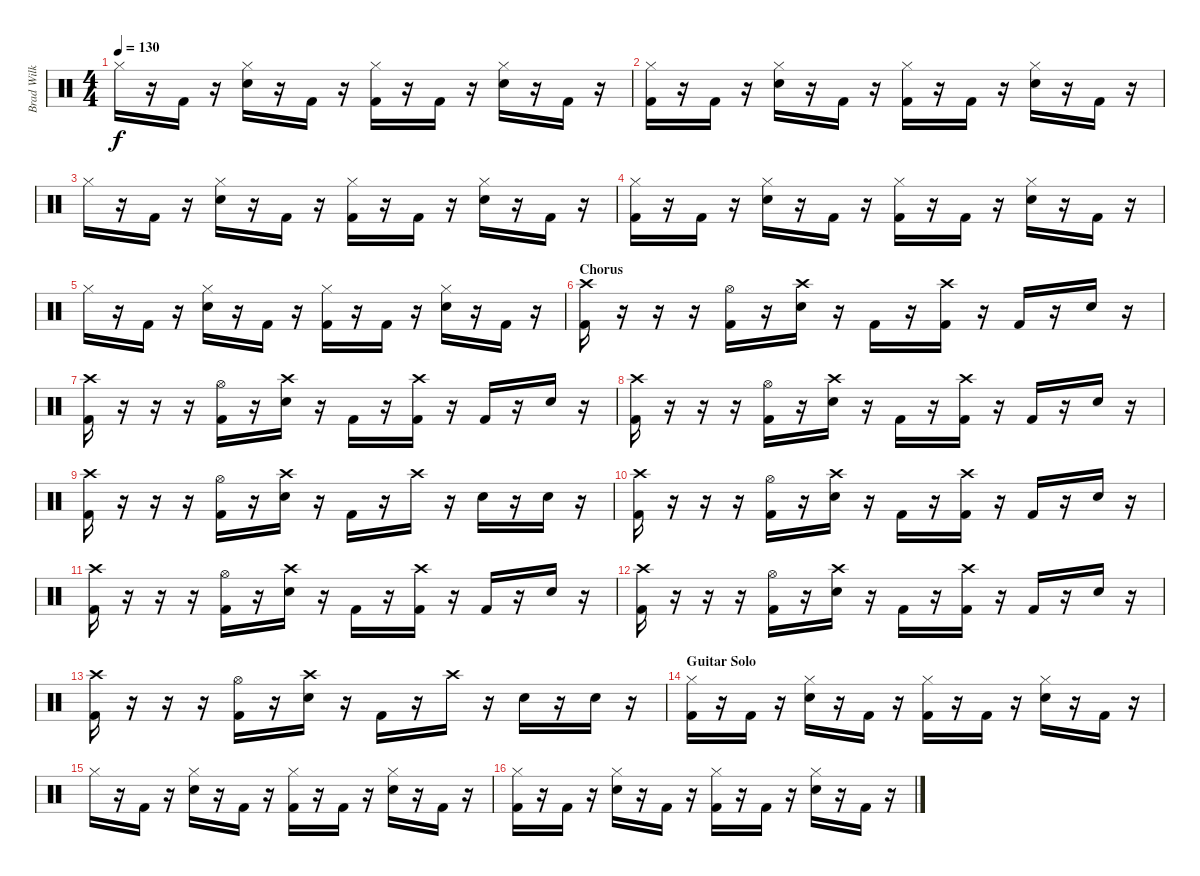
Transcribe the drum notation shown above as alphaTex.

\track ("Brad Wilk - Drums" "Brad Wilk ") {instrument percussion}
\staff {score}
\articulation defaults
\ts (4 4)
\tempo 130
\clef neutral
\ks c "Hi-Hat (closed)".16{dy f}
r.16 "Kick (hit) 2".16 r.16 ("Hi-Hat (closed)" "Electric Snare (hit)").16 r.16 "Kick (hit) 2".16 r.16 ("Hi-Hat (closed)" "Kick (hit) 2").16 r.16 "Kick (hit) 2".16 r.16 ("Hi-Hat (closed)" "Electric Snare (hit)").16 r.16 "Kick (hit) 2".16 r.16 |
("Hi-Hat (closed)" "Kick (hit) 2").16 r.16 "Kick (hit) 2".16 r.16 ("Hi-Hat (closed)" "Electric Snare (hit)").16 r.16 "Kick (hit) 2".16 r.16 ("Hi-Hat (closed)" "Kick (hit) 2").16 r.16 "Kick (hit) 2".16 r.16 ("Hi-Hat (closed)" "Electric Snare (hit)").16 r.16 "Kick (hit) 2".16 r.16 |
"Hi-Hat (closed)".16 r.16 "Kick (hit) 2".16 r.16 ("Hi-Hat (closed)" "Electric Snare (hit)").16 r.16 "Kick (hit) 2".16 r.16 ("Hi-Hat (closed)" "Kick (hit) 2").16 r.16 "Kick (hit) 2".16 r.16 ("Hi-Hat (closed)" "Electric Snare (hit)").16 r.16 "Kick (hit) 2".16 r.16 |
("Hi-Hat (closed)" "Kick (hit) 2").16 r.16 "Kick (hit) 2".16 r.16 ("Hi-Hat (closed)" "Electric Snare (hit)").16 r.16 "Kick (hit) 2".16 r.16 ("Hi-Hat (closed)" "Kick (hit) 2").16 r.16 "Kick (hit) 2".16 r.16 ("Hi-Hat (closed)" "Electric Snare (hit)").16 r.16 "Kick (hit) 2".16 r.16 |
"Hi-Hat (closed)".16 r.16 "Kick (hit) 2".16 r.16 ("Hi-Hat (closed)" "Electric Snare (hit)").16 r.16 "Kick (hit) 2".16 r.16 ("Hi-Hat (closed)" "Kick (hit) 2").16 r.16 "Kick (hit) 2".16 r.16 ("Hi-Hat (closed)" "Electric Snare (hit)").16 r.16 "Kick (hit) 2".16 r.16 |
\section ("" "Chorus")
("Crash high (hit)" "Kick (hit) 2").16 r.16 r.16 r.16 ("Hi-Hat (open)" "Kick (hit) 2").16 r.16 ("Crash high (hit)" "Electric Snare (hit)").16 r.16 "Kick (hit) 2".16 r.16 ("Crash high (hit)" "Kick (hit) 2").16 r.16 "Kick (hit) 2".16 r.16 "Electric Snare (hit)".16 r.16 |
("Crash high (hit)" "Kick (hit) 2").16 r.16 r.16 r.16 ("Hi-Hat (open)" "Kick (hit) 2").16 r.16 ("Crash high (hit)" "Electric Snare (hit)").16 r.16 "Kick (hit) 2".16 r.16 ("Crash high (hit)" "Kick (hit) 2").16 r.16 "Kick (hit) 2".16 r.16 "Electric Snare (hit)".16 r.16 |
("Crash high (hit)" "Kick (hit) 2").16 r.16 r.16 r.16 ("Hi-Hat (open)" "Kick (hit) 2").16 r.16 ("Crash high (hit)" "Electric Snare (hit)").16 r.16 "Kick (hit) 2".16 r.16 ("Crash high (hit)" "Kick (hit) 2").16 r.16 "Kick (hit) 2".16 r.16 "Electric Snare (hit)".16 r.16 |
("Crash high (hit)" "Kick (hit) 2").16 r.16 r.16 r.16 ("Hi-Hat (open)" "Kick (hit) 2").16 r.16 ("Crash high (hit)" "Electric Snare (hit)").16 r.16 "Kick (hit) 2".16 r.16 "Crash high (hit)".16 r.16 "Electric Snare (hit)".16 r.16 "Electric Snare (hit)".16 r.16 |
("Crash high (hit)" "Kick (hit) 2").16 r.16 r.16 r.16 ("Hi-Hat (open)" "Kick (hit) 2").16 r.16 ("Crash high (hit)" "Electric Snare (hit)").16 r.16 "Kick (hit) 2".16 r.16 ("Crash high (hit)" "Kick (hit) 2").16 r.16 "Kick (hit) 2".16 r.16 "Electric Snare (hit)".16 r.16 |
("Crash high (hit)" "Kick (hit) 2").16 r.16 r.16 r.16 ("Hi-Hat (open)" "Kick (hit) 2").16 r.16 ("Crash high (hit)" "Electric Snare (hit)").16 r.16 "Kick (hit) 2".16 r.16 ("Crash high (hit)" "Kick (hit) 2").16 r.16 "Kick (hit) 2".16 r.16 "Electric Snare (hit)".16 r.16 |
("Crash high (hit)" "Kick (hit) 2").16 r.16 r.16 r.16 ("Hi-Hat (open)" "Kick (hit) 2").16 r.16 ("Crash high (hit)" "Electric Snare (hit)").16 r.16 "Kick (hit) 2".16 r.16 ("Crash high (hit)" "Kick (hit) 2").16 r.16 "Kick (hit) 2".16 r.16 "Electric Snare (hit)".16 r.16 |
("Crash high (hit)" "Kick (hit) 2").16 r.16 r.16 r.16 ("Hi-Hat (open)" "Kick (hit) 2").16 r.16 ("Crash high (hit)" "Electric Snare (hit)").16 r.16 "Kick (hit) 2".16 r.16 "Crash high (hit)".16 r.16 "Electric Snare (hit)".16 r.16 "Electric Snare (hit)".16 r.16 |
\section ("" "Guitar Solo")
("Hi-Hat (closed)" "Kick (hit) 2").16 r.16 "Kick (hit) 2".16 r.16 ("Hi-Hat (closed)" "Electric Snare (hit)").16 r.16 "Kick (hit) 2".16 r.16 ("Hi-Hat (closed)" "Kick (hit) 2").16 r.16 "Kick (hit) 2".16 r.16 ("Hi-Hat (closed)" "Electric Snare (hit)").16 r.16 "Kick (hit) 2".16 r.16 |
"Hi-Hat (closed)".16 r.16 "Kick (hit) 2".16 r.16 ("Hi-Hat (closed)" "Electric Snare (hit)").16 r.16 "Kick (hit) 2".16 r.16 ("Hi-Hat (closed)" "Kick (hit) 2").16 r.16 "Kick (hit) 2".16 r.16 ("Hi-Hat (closed)" "Electric Snare (hit)").16 r.16 "Kick (hit) 2".16 r.16 |
("Hi-Hat (closed)" "Kick (hit) 2").16 r.16 "Kick (hit) 2".16 r.16 ("Hi-Hat (closed)" "Electric Snare (hit)").16 r.16 "Kick (hit) 2".16 r.16 ("Hi-Hat (closed)" "Kick (hit) 2").16 r.16 "Kick (hit) 2".16 r.16 ("Hi-Hat (closed)" "Electric Snare (hit)").16 r.16 "Kick (hit) 2".16 r.16
